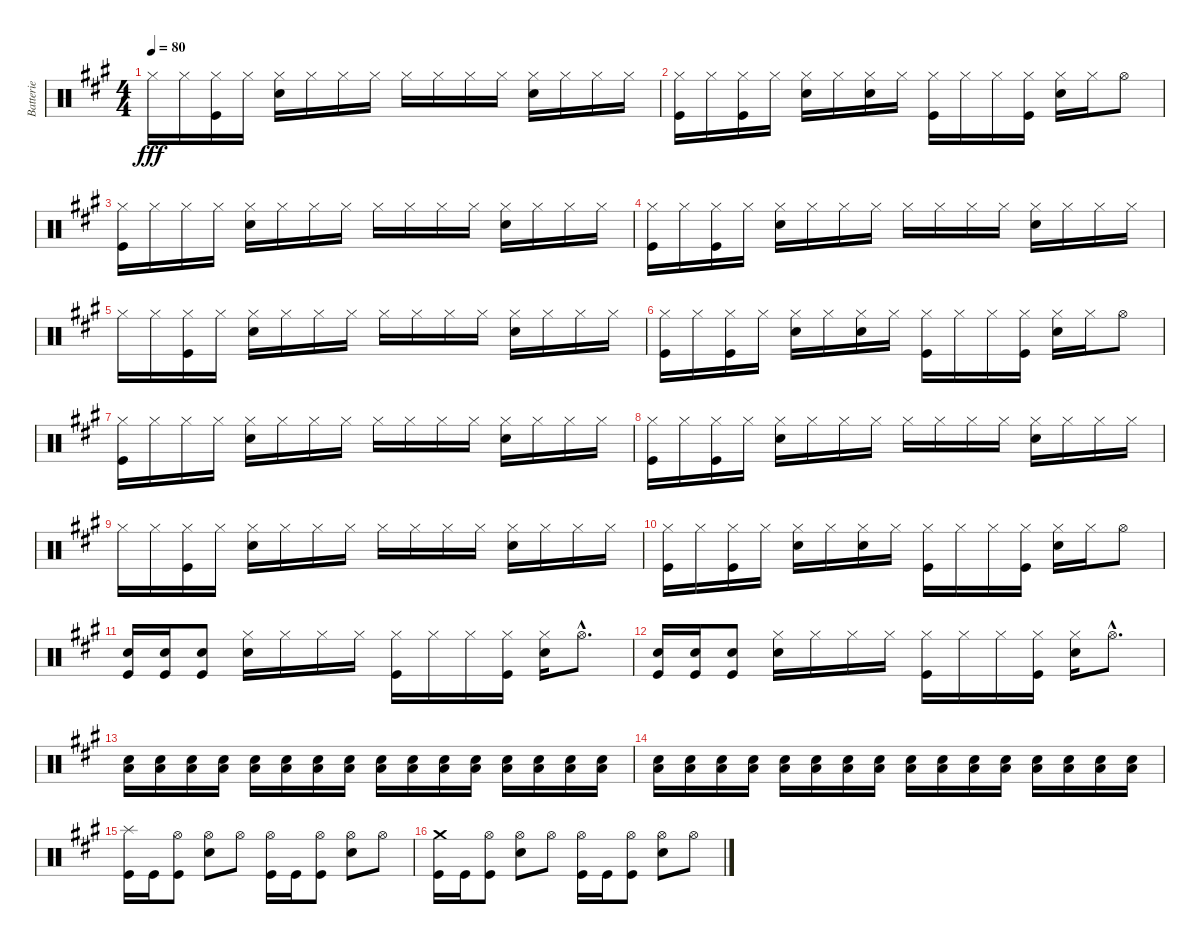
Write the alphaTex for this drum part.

\track ("Batterie" "Batterie") {instrument percussion}
\staff {score}
\articulation defaults
\ts (4 4)
\tempo 80
\clef neutral
\ks a "Hi-Hat (closed)".16{dy fff} "Hi-Hat (closed)".16
("Hi-Hat (closed)" "Kick (hit)").16 "Hi-Hat (closed)".16 ("Hi-Hat (closed)" "Snare (hit) 2").16 "Hi-Hat (closed)".16 "Hi-Hat (closed)".16 "Hi-Hat (closed)".16 "Hi-Hat (closed)".16 "Hi-Hat (closed)".16 "Hi-Hat (closed)".16 "Hi-Hat (closed)".16 ("Hi-Hat (closed)" "Snare (hit) 2").16 "Hi-Hat (closed)".16 "Hi-Hat (closed)".16 "Hi-Hat (closed)".16 |
("Hi-Hat (closed)" "Kick (hit)").16 "Hi-Hat (closed)".16 ("Hi-Hat (closed)" "Kick (hit)").16 "Hi-Hat (closed)".16 ("Hi-Hat (closed)" "Snare (hit) 2").16 "Hi-Hat (closed)".16 ("Hi-Hat (closed)" "Snare (hit) 2").16 "Hi-Hat (closed)".16 ("Hi-Hat (closed)" "Kick (hit)").16 "Hi-Hat (closed)".16 "Hi-Hat (closed)".16 ("Hi-Hat (closed)" "Kick (hit)").16 ("Hi-Hat (closed)" "Snare (hit) 2").16 "Hi-Hat (closed)".16 "Hi-Hat (open)".8 |
("Hi-Hat (closed)" "Kick (hit)").16 "Hi-Hat (closed)".16 "Hi-Hat (closed)".16 "Hi-Hat (closed)".16 ("Hi-Hat (closed)" "Snare (hit) 2").16 "Hi-Hat (closed)".16 "Hi-Hat (closed)".16 "Hi-Hat (closed)".16 "Hi-Hat (closed)".16 "Hi-Hat (closed)".16 "Hi-Hat (closed)".16 "Hi-Hat (closed)".16 ("Hi-Hat (closed)" "Snare (hit) 2").16 "Hi-Hat (closed)".16 "Hi-Hat (closed)".16 "Hi-Hat (closed)".16 |
("Hi-Hat (closed)" "Kick (hit)").16 "Hi-Hat (closed)".16 ("Hi-Hat (closed)" "Kick (hit)").16 "Hi-Hat (closed)".16 ("Hi-Hat (closed)" "Snare (hit) 2").16 "Hi-Hat (closed)".16 "Hi-Hat (closed)".16 "Hi-Hat (closed)".16 "Hi-Hat (closed)".16 "Hi-Hat (closed)".16 "Hi-Hat (closed)".16 "Hi-Hat (closed)".16 ("Hi-Hat (closed)" "Snare (hit) 2").16 "Hi-Hat (closed)".16 "Hi-Hat (closed)".16 "Hi-Hat (closed)".16 |
"Hi-Hat (closed)".16 "Hi-Hat (closed)".16 ("Hi-Hat (closed)" "Kick (hit)").16 "Hi-Hat (closed)".16 ("Hi-Hat (closed)" "Snare (hit) 2").16 "Hi-Hat (closed)".16 "Hi-Hat (closed)".16 "Hi-Hat (closed)".16 "Hi-Hat (closed)".16 "Hi-Hat (closed)".16 "Hi-Hat (closed)".16 "Hi-Hat (closed)".16 ("Hi-Hat (closed)" "Snare (hit) 2").16 "Hi-Hat (closed)".16 "Hi-Hat (closed)".16 "Hi-Hat (closed)".16 |
("Hi-Hat (closed)" "Kick (hit)").16 "Hi-Hat (closed)".16 ("Hi-Hat (closed)" "Kick (hit)").16 "Hi-Hat (closed)".16 ("Hi-Hat (closed)" "Snare (hit) 2").16 "Hi-Hat (closed)".16 ("Hi-Hat (closed)" "Snare (hit) 2").16 "Hi-Hat (closed)".16 ("Hi-Hat (closed)" "Kick (hit)").16 "Hi-Hat (closed)".16 "Hi-Hat (closed)".16 ("Hi-Hat (closed)" "Kick (hit)").16 ("Hi-Hat (closed)" "Snare (hit) 2").16 "Hi-Hat (closed)".16 "Hi-Hat (open)".8 |
("Hi-Hat (closed)" "Kick (hit)").16 "Hi-Hat (closed)".16 "Hi-Hat (closed)".16 "Hi-Hat (closed)".16 ("Hi-Hat (closed)" "Snare (hit) 2").16 "Hi-Hat (closed)".16 "Hi-Hat (closed)".16 "Hi-Hat (closed)".16 "Hi-Hat (closed)".16 "Hi-Hat (closed)".16 "Hi-Hat (closed)".16 "Hi-Hat (closed)".16 ("Hi-Hat (closed)" "Snare (hit) 2").16 "Hi-Hat (closed)".16 "Hi-Hat (closed)".16 "Hi-Hat (closed)".16 |
("Hi-Hat (closed)" "Kick (hit)").16 "Hi-Hat (closed)".16 ("Hi-Hat (closed)" "Kick (hit)").16 "Hi-Hat (closed)".16 ("Hi-Hat (closed)" "Snare (hit) 2").16 "Hi-Hat (closed)".16 "Hi-Hat (closed)".16 "Hi-Hat (closed)".16 "Hi-Hat (closed)".16 "Hi-Hat (closed)".16 "Hi-Hat (closed)".16 "Hi-Hat (closed)".16 ("Hi-Hat (closed)" "Snare (hit) 2").16 "Hi-Hat (closed)".16 "Hi-Hat (closed)".16 "Hi-Hat (closed)".16 |
"Hi-Hat (closed)".16 "Hi-Hat (closed)".16 ("Hi-Hat (closed)" "Kick (hit)").16 "Hi-Hat (closed)".16 ("Hi-Hat (closed)" "Snare (hit) 2").16 "Hi-Hat (closed)".16 "Hi-Hat (closed)".16 "Hi-Hat (closed)".16 "Hi-Hat (closed)".16 "Hi-Hat (closed)".16 "Hi-Hat (closed)".16 "Hi-Hat (closed)".16 ("Hi-Hat (closed)" "Snare (hit) 2").16 "Hi-Hat (closed)".16 "Hi-Hat (closed)".16 "Hi-Hat (closed)".16 |
("Hi-Hat (closed)" "Kick (hit)").16 "Hi-Hat (closed)".16 ("Hi-Hat (closed)" "Kick (hit)").16 "Hi-Hat (closed)".16 ("Hi-Hat (closed)" "Snare (hit) 2").16 "Hi-Hat (closed)".16 ("Hi-Hat (closed)" "Snare (hit) 2").16 "Hi-Hat (closed)".16 ("Hi-Hat (closed)" "Kick (hit)").16 "Hi-Hat (closed)".16 "Hi-Hat (closed)".16 ("Hi-Hat (closed)" "Kick (hit)").16 ("Hi-Hat (closed)" "Snare (hit) 2").16 "Hi-Hat (closed)".16 "Hi-Hat (open)".8 |
("Snare (hit) 2" "Kick (hit)").16 ("Snare (hit) 2" "Kick (hit)").16 ("Snare (hit) 2" "Kick (hit)").8 ("Hi-Hat (closed)" "Snare (hit) 2").16 "Hi-Hat (closed)".16 "Hi-Hat (closed)".16 "Hi-Hat (closed)".16 ("Hi-Hat (closed)" "Kick (hit)").16 "Hi-Hat (closed)".16 "Hi-Hat (closed)".16 ("Hi-Hat (closed)" "Kick (hit)").16 ("Hi-Hat (closed)" "Snare (hit) 2").16 "Hi-Hat (open)"{hac}.8{d} |
("Snare (hit) 2" "Kick (hit)").16 ("Snare (hit) 2" "Kick (hit)").16 ("Snare (hit) 2" "Kick (hit)").8 ("Hi-Hat (closed)" "Snare (hit) 2").16 "Hi-Hat (closed)".16 "Hi-Hat (closed)".16 "Hi-Hat (closed)".16 ("Hi-Hat (closed)" "Kick (hit)").16 "Hi-Hat (closed)".16 "Hi-Hat (closed)".16 ("Hi-Hat (closed)" "Kick (hit)").16 ("Hi-Hat (closed)" "Snare (hit) 2").16 "Hi-Hat (open)"{hac}.8{d} |
("Low Floor Tom (hit)" "Snare (hit) 2").16 ("Low Floor Tom (hit)" "Snare (hit) 2").16 ("Low Floor Tom (hit)" "Snare (hit) 2").16 ("Low Floor Tom (hit)" "Snare (hit) 2").16 ("Low Floor Tom (hit)" "Snare (hit) 2").16 ("Low Floor Tom (hit)" "Snare (hit) 2").16 ("Low Floor Tom (hit)" "Snare (hit) 2").16 ("Low Floor Tom (hit)" "Snare (hit) 2").16 ("Low Floor Tom (hit)" "Snare (hit) 2").16 ("Low Floor Tom (hit)" "Snare (hit) 2").16 ("Low Floor Tom (hit)" "Snare (hit) 2").16 ("Low Floor Tom (hit)" "Snare (hit) 2").16 ("Low Floor Tom (hit)" "Snare (hit) 2").16 ("Low Floor Tom (hit)" "Snare (hit) 2").16 ("Low Floor Tom (hit)" "Snare (hit) 2").16 ("Low Floor Tom (hit)" "Snare (hit) 2").16 |
("Low Floor Tom (hit)" "Snare (hit) 2").16 ("Low Floor Tom (hit)" "Snare (hit) 2").16 ("Low Floor Tom (hit)" "Snare (hit) 2").16 ("Low Floor Tom (hit)" "Snare (hit) 2").16 ("Low Floor Tom (hit)" "Snare (hit) 2").16 ("Low Floor Tom (hit)" "Snare (hit) 2").16 ("Low Floor Tom (hit)" "Snare (hit) 2").16 ("Low Floor Tom (hit)" "Snare (hit) 2").16 ("Low Floor Tom (hit)" "Snare (hit) 2").16 ("Low Floor Tom (hit)" "Snare (hit) 2").16 ("Low Floor Tom (hit)" "Snare (hit) 2").16 ("Low Floor Tom (hit)" "Snare (hit) 2").16 ("Low Floor Tom (hit)" "Snare (hit) 2").16 ("Low Floor Tom (hit)" "Snare (hit) 2").16 ("Low Floor Tom (hit)" "Snare (hit) 2").16 ("Low Floor Tom (hit)" "Snare (hit) 2").16 |
("Splash (hit)" "Kick (hit)").16 "Kick (hit)".16 ("Hi-Hat (open)" "Kick (hit)").8 ("Hi-Hat (open)" "Snare (hit) 2").8 "Hi-Hat (open)".8 ("Hi-Hat (open)" "Kick (hit)").16 "Kick (hit)".16 ("Hi-Hat (open)" "Kick (hit)").8 ("Hi-Hat (open)" "Snare (hit) 2").8 "Hi-Hat (open)".8 |
("Crash medium (hit)" "Kick (hit)").16 "Kick (hit)".16 ("Hi-Hat (open)" "Kick (hit)").8 ("Hi-Hat (open)" "Snare (hit) 2").8 "Hi-Hat (open)".8 ("Hi-Hat (open)" "Kick (hit)").16 "Kick (hit)".16 ("Hi-Hat (open)" "Kick (hit)").8 ("Hi-Hat (open)" "Snare (hit) 2").8 "Hi-Hat (open)".8
